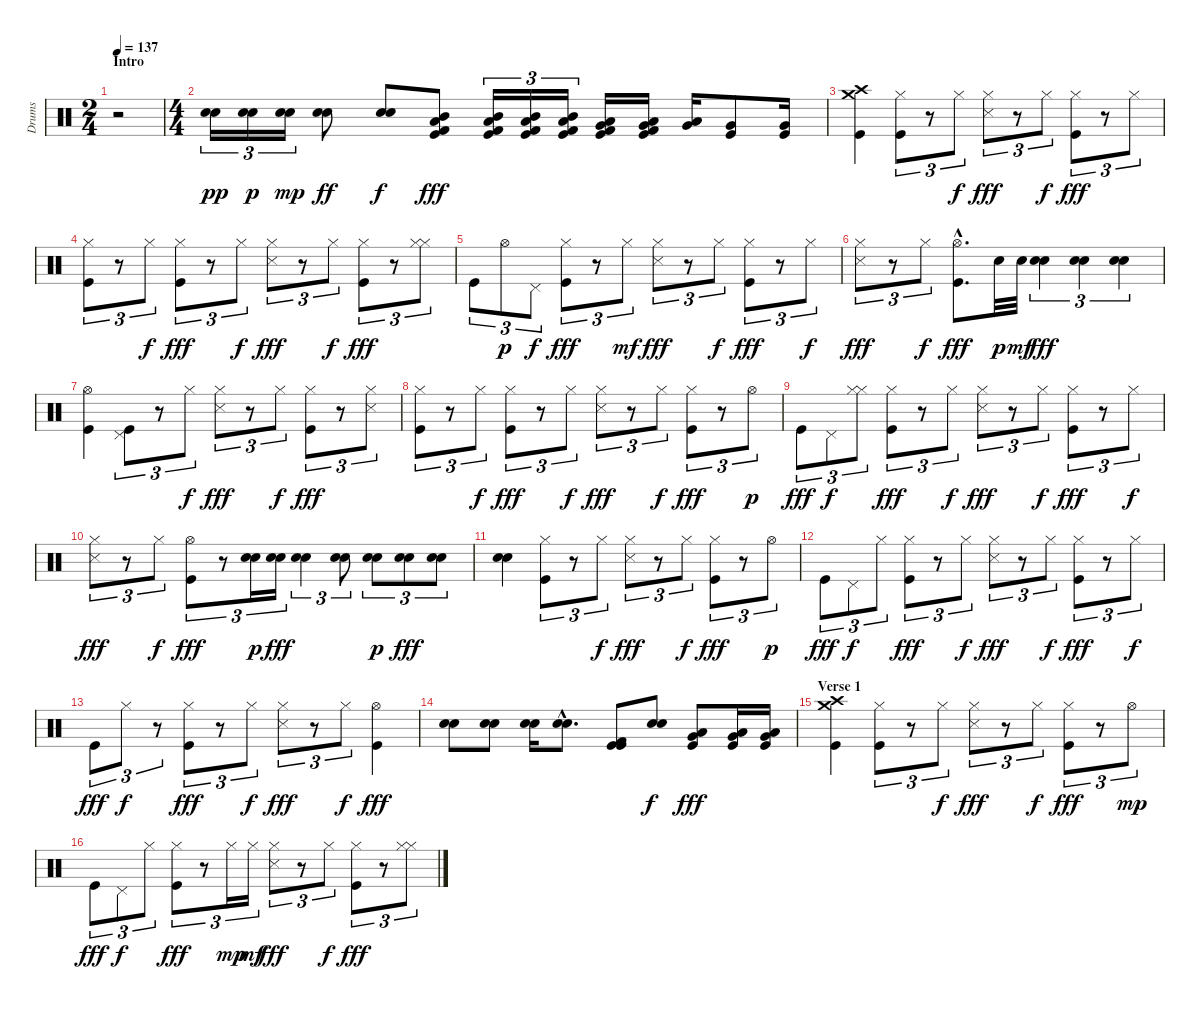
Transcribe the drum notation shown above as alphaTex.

\track ("Drums" "Drums") {instrument percussion}
\staff {score}
\articulation defaults
\ts (2 4)
\section ("" "Intro")
\tempo 137
\clef neutral
\ks c
r.2{dy pp} |
\ts (4 4)
("Snare (hit) 2" "Electric Snare (hit)").16{tu (3 2)} ("Snare (hit) 2" "Electric Snare (hit)").16{tu (3 2) dy p} ("Snare (hit) 2" "Electric Snare (hit)").16{tu (3 2) dy mp} ("Snare (hit) 2" "Electric Snare (hit)").8{dy ff} ("Snare (hit) 2" "Electric Snare (hit)").8{dy f} ("Mid Tom (hit)" "Low Tom (hit)" "Kick (hit)" "Kick (hit) 2").8{dy fff balance 0} ("Mid Tom (hit)" "Low Tom (hit)" "Kick (hit)" "Kick (hit) 2").16{tu (3 2)} ("Mid Tom (hit)" "Low Tom (hit)" "Kick (hit)" "Kick (hit) 2").16{tu (3 2)} ("Mid Tom (hit)" "Low Tom (hit)" "Kick (hit)" "Kick (hit) 2").16{tu (3 2)} ("Low Tom (hit)" "Very Low Tom (hit)" "Kick (hit)" "Kick (hit) 2").16{balance 16} ("Low Tom (hit)" "Very Low Tom (hit)" "Kick (hit)" "Kick (hit) 2").16 ("Low Tom (hit)" "Very Low Tom (hit)").16 ("Kick (hit)" "Very Low Tom (hit)").8 ("Kick (hit)" "Very Low Tom (hit)").16 |
("Crash medium (hit)" "Crash high (hit)" "Kick (hit)").4{balance 8} ("Hi-Hat (closed)" "Kick (hit)").8{tu (3 2) volume 10} r.8{tu (3 2)} "Hi-Hat (closed)".8{tu (3 2) dy f} ("Hi-Hat (closed)" "Snare (side stick) 3").8{tu (3 2) dy fff} r.8{tu (3 2)} "Hi-Hat (closed)".8{tu (3 2) dy f} ("Hi-Hat (closed)" "Kick (hit)").8{tu (3 2) dy fff} r.8{tu (3 2)} "Hi-Hat (closed)".8{tu (3 2)} |
("Hi-Hat (closed)" "Kick (hit)").8{tu (3 2)} r.8{tu (3 2)} "Hi-Hat (closed)".8{tu (3 2) dy f} ("Hi-Hat (closed)" "Kick (hit)").8{tu (3 2) dy fff} r.8{tu (3 2)} "Hi-Hat (closed)".8{tu (3 2) dy f} ("Hi-Hat (closed)" "Snare (side stick) 3").8{tu (3 2) dy fff} r.8{tu (3 2)} "Hi-Hat (closed)".8{tu (3 2) dy f} ("Hi-Hat (closed)" "Kick (hit)").8{tu (3 2) dy fff} r.8{tu (3 2)} ("Hi-Hat (closed)" "Hi-Hat (closed)").8{tu (3 2)} |
"Kick (hit)".8{tu (3 2)} "Hi-Hat (open)".8{tu (3 2) dy p} "Pedal Hi-Hat (hit)".8{tu (3 2) dy f} ("Hi-Hat (closed)" "Kick (hit)").8{tu (3 2) dy fff} r.8{tu (3 2)} "Hi-Hat (closed)".8{tu (3 2) dy mf} ("Hi-Hat (closed)" "Snare (side stick) 3").8{tu (3 2) dy fff} r.8{tu (3 2)} "Hi-Hat (closed)".8{tu (3 2) dy f} ("Hi-Hat (closed)" "Kick (hit)").8{tu (3 2) dy fff} r.8{tu (3 2)} "Hi-Hat (closed)".8{tu (3 2) dy f} |
("Hi-Hat (closed)" "Snare (side stick) 3").8{tu (3 2) dy fff} r.8{tu (3 2)} "Hi-Hat (closed)".8{tu (3 2) dy f} ("Hi-Hat (open)"{hac} "Kick (hit)"{hac}).8{d dy fff} "Snare (hit) 2".32{dy p volume 16} "Snare (hit) 2".32{dy mf} ("Snare (hit) 2" "Electric Snare (hit)").4{tu (3 2) dy fff} ("Snare (hit) 2" "Electric Snare (hit)").4{tu (3 2)} ("Snare (hit) 2" "Electric Snare (hit)").4{tu (3 2)} |
("Hi-Hat (open)" "Kick (hit)").4 ("Pedal Hi-Hat (hit)" "Kick (hit)").8{tu (3 2) volume 10} r.8{tu (3 2)} "Hi-Hat (closed)".8{tu (3 2) dy f} ("Hi-Hat (closed)" "Snare (side stick) 3").8{tu (3 2) dy fff} r.8{tu (3 2)} "Hi-Hat (closed)".8{tu (3 2) dy f} ("Hi-Hat (closed)" "Kick (hit)").8{tu (3 2) dy fff} r.8{tu (3 2)} ("Hi-Hat (closed)" "Snare (side stick) 3").8{tu (3 2)} |
("Hi-Hat (closed)" "Kick (hit)").8{tu (3 2)} r.8{tu (3 2)} "Hi-Hat (closed)".8{tu (3 2) dy f} ("Hi-Hat (closed)" "Kick (hit)").8{tu (3 2) dy fff} r.8{tu (3 2)} "Hi-Hat (closed)".8{tu (3 2) dy f} ("Hi-Hat (closed)" "Snare (side stick) 3").8{tu (3 2) dy fff} r.8{tu (3 2)} "Hi-Hat (closed)".8{tu (3 2) dy f} ("Hi-Hat (closed)" "Kick (hit)").8{tu (3 2) dy fff} r.8{tu (3 2)} "Hi-Hat (open)".8{tu (3 2) dy p} |
"Kick (hit)".8{tu (3 2) dy fff} "Pedal Hi-Hat (hit)".8{tu (3 2) dy f} ("Hi-Hat (closed)" "Hi-Hat (closed)").8{tu (3 2)} ("Hi-Hat (closed)" "Kick (hit)").8{tu (3 2) dy fff} r.8{tu (3 2)} "Hi-Hat (closed)".8{tu (3 2) dy f} ("Hi-Hat (closed)" "Snare (side stick) 3").8{tu (3 2) dy fff} r.8{tu (3 2)} "Hi-Hat (closed)".8{tu (3 2) dy f} ("Hi-Hat (closed)" "Kick (hit)").8{tu (3 2) dy fff} r.8{tu (3 2)} "Hi-Hat (closed)".8{tu (3 2) dy f} |
("Hi-Hat (closed)" "Snare (side stick) 3").8{tu (3 2) dy fff} r.8{tu (3 2)} "Hi-Hat (closed)".8{tu (3 2) dy f} ("Hi-Hat (open)" "Kick (hit)").8{tu (3 2) dy fff} r.8{tu (3 2)} ("Snare (hit) 2" "Electric Snare (hit)").16{tu (3 2) dy p volume 16} ("Snare (hit) 2" "Electric Snare (hit)").16{tu (3 2) dy fff} ("Snare (hit) 2" "Electric Snare (hit)").4{tu (3 2)} ("Snare (hit) 2" "Electric Snare (hit)").8{tu (3 2)} ("Snare (hit) 2" "Electric Snare (hit)").8{tu (3 2) dy p} ("Snare (hit) 2" "Electric Snare (hit)").8{tu (3 2) dy fff} ("Snare (hit) 2" "Electric Snare (hit)").8{tu (3 2)} |
("Snare (hit) 2" "Electric Snare (hit)").4 ("Hi-Hat (closed)" "Kick (hit)").8{tu (3 2) volume 10} r.8{tu (3 2)} "Hi-Hat (closed)".8{tu (3 2) dy f} ("Hi-Hat (closed)" "Snare (side stick) 3").8{tu (3 2) dy fff} r.8{tu (3 2)} "Hi-Hat (closed)".8{tu (3 2) dy f} ("Hi-Hat (closed)" "Kick (hit)").8{tu (3 2) dy fff} r.8{tu (3 2)} "Hi-Hat (open)".8{tu (3 2) dy p} |
"Kick (hit)".8{tu (3 2) dy fff} "Pedal Hi-Hat (hit)".8{tu (3 2) dy f} "Hi-Hat (closed)".8{tu (3 2)} ("Hi-Hat (closed)" "Kick (hit)").8{tu (3 2) dy fff} r.8{tu (3 2)} "Hi-Hat (closed)".8{tu (3 2) dy f} ("Hi-Hat (closed)" "Snare (side stick) 3").8{tu (3 2) dy fff} r.8{tu (3 2)} "Hi-Hat (closed)".8{tu (3 2) dy f} ("Hi-Hat (closed)" "Kick (hit)").8{tu (3 2) dy fff} r.8{tu (3 2)} "Hi-Hat (closed)".8{tu (3 2) dy f} |
"Kick (hit)".8{tu (3 2) dy fff} "Hi-Hat (closed)".8{tu (3 2) dy f} r.8{tu (3 2)} ("Hi-Hat (closed)" "Kick (hit)").8{tu (3 2) dy fff} r.8{tu (3 2)} "Hi-Hat (closed)".8{tu (3 2) dy f} ("Hi-Hat (closed)" "Snare (side stick) 3").8{tu (3 2) dy fff} r.8{tu (3 2)} "Hi-Hat (closed)".8{tu (3 2) dy f} ("Hi-Hat (open)" "Kick (hit)").4{dy fff} |
("Snare (hit) 2" "Electric Snare (hit)").8{volume 16} ("Snare (hit) 2" "Electric Snare (hit)").8 ("Snare (hit) 2" "Electric Snare (hit)").16 ("Snare (hit) 2"{hac} "Electric Snare (hit)"{hac}).8{d} ("Kick (hit)" "Kick (hit)" "Kick (hit) 2").8 ("Snare (hit) 2" "Electric Snare (hit)").8{dy f} ("Low Tom (hit)" "Very Low Tom (hit)" "Kick (hit)").8{dy fff balance 0} ("Kick (hit)" "Very Low Tom (hit)" "Low Floor Tom (hit)").16{balance 16} ("Kick (hit)" "Very Low Tom (hit)" "Low Floor Tom (hit)").16 |
\section ("" "Verse 1")
("Crash medium (hit)" "Crash high (hit)" "Kick (hit)").4{balance 8} ("Hi-Hat (closed)" "Kick (hit)").8{tu (3 2) volume 10} r.8{tu (3 2)} "Hi-Hat (closed)".8{tu (3 2) dy f} ("Hi-Hat (closed)" "Snare (side stick) 3").8{tu (3 2) dy fff} r.8{tu (3 2)} "Hi-Hat (closed)".8{tu (3 2) dy f} ("Hi-Hat (closed)" "Kick (hit)").8{tu (3 2) dy fff} r.8{tu (3 2)} "Hi-Hat (open)".8{tu (3 2) dy mp} |
"Kick (hit)".8{tu (3 2) dy fff} "Pedal Hi-Hat (hit)".8{tu (3 2) dy f} "Hi-Hat (closed)".8{tu (3 2)} ("Hi-Hat (closed)" "Kick (hit)").8{tu (3 2) dy fff} r.8{tu (3 2)} "Hi-Hat (closed)".16{tu (3 2) dy mp} "Hi-Hat (closed)".16{tu (3 2) dy mf} ("Hi-Hat (closed)" "Snare (side stick) 3").8{tu (3 2) dy fff} r.8{tu (3 2)} "Hi-Hat (closed)".8{tu (3 2) dy f} ("Hi-Hat (closed)" "Kick (hit)").8{tu (3 2) dy fff} r.8{tu (3 2)} ("Hi-Hat (closed)" "Hi-Hat (closed)").8{tu (3 2)}
